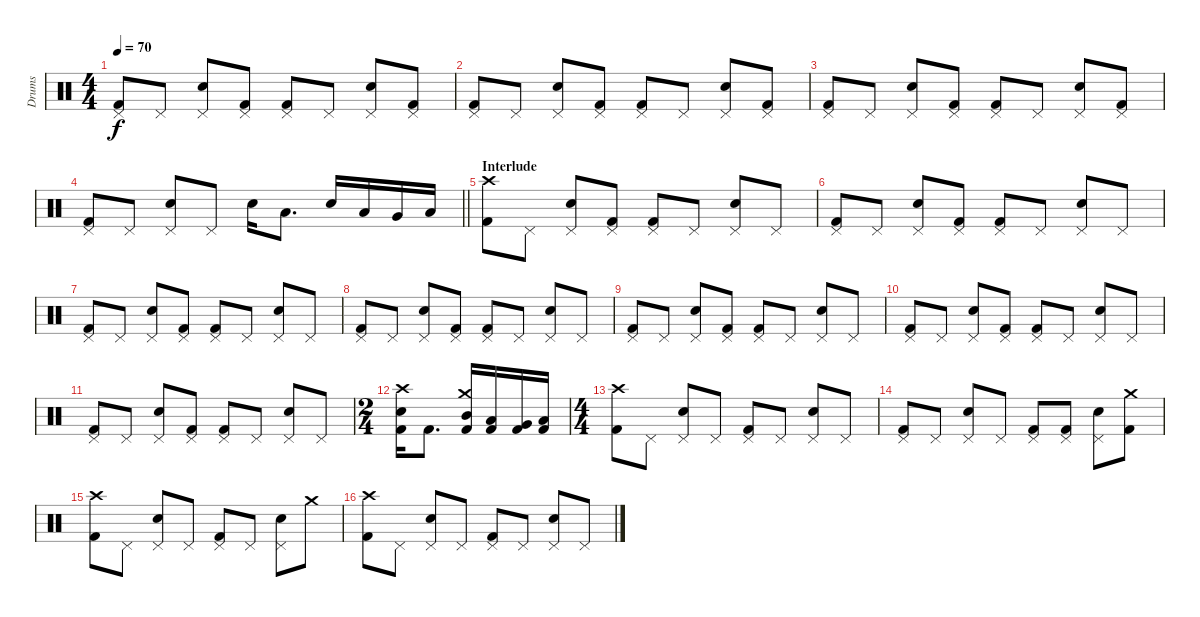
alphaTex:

\track ("Drums" "Drums") {instrument percussion}
\staff {score}
\articulation defaults
\ts (4 4)
\tempo 70
\clef neutral
\ks c
("Pedal Hi-Hat (hit)" "Kick (hit) 2").8{dy f} "Pedal Hi-Hat (hit)".8 ("Pedal Hi-Hat (hit)" "Snare (hit) 2").8 ("Pedal Hi-Hat (hit)" "Kick (hit) 2").8 ("Pedal Hi-Hat (hit)" "Kick (hit) 2").8 "Pedal Hi-Hat (hit)".8 ("Pedal Hi-Hat (hit)" "Snare (hit) 2").8 ("Pedal Hi-Hat (hit)" "Kick (hit) 2").8 |
("Pedal Hi-Hat (hit)" "Kick (hit) 2").8 "Pedal Hi-Hat (hit)".8 ("Pedal Hi-Hat (hit)" "Snare (hit) 2").8 ("Pedal Hi-Hat (hit)" "Kick (hit) 2").8 ("Pedal Hi-Hat (hit)" "Kick (hit) 2").8 "Pedal Hi-Hat (hit)".8 ("Pedal Hi-Hat (hit)" "Snare (hit) 2").8 ("Pedal Hi-Hat (hit)" "Kick (hit) 2").8 |
("Pedal Hi-Hat (hit)" "Kick (hit) 2").8 "Pedal Hi-Hat (hit)".8 ("Pedal Hi-Hat (hit)" "Snare (hit) 2").8 ("Pedal Hi-Hat (hit)" "Kick (hit) 2").8 ("Pedal Hi-Hat (hit)" "Kick (hit) 2").8 "Pedal Hi-Hat (hit)".8 ("Pedal Hi-Hat (hit)" "Snare (hit) 2").8 ("Pedal Hi-Hat (hit)" "Kick (hit) 2").8 |
\barLineRight lightlight
("Pedal Hi-Hat (hit)" "Kick (hit) 2").8 "Pedal Hi-Hat (hit)".8 ("Pedal Hi-Hat (hit)" "Snare (hit) 2").8 "Pedal Hi-Hat (hit)".8 "Snare (hit) 2".16 "Low Tom (hit)".8{d} "Snare (hit) 2".16 "Low Tom (hit)".16 "Very Low Tom (hit)".16 "Low Floor Tom (hit)".16 |
\section ("" "Interlude")
("Crash high (hit)" "Kick (hit) 2").8 "Pedal Hi-Hat (hit)".8 ("Pedal Hi-Hat (hit)" "Snare (hit) 2").8 ("Pedal Hi-Hat (hit)" "Kick (hit) 2").8 ("Pedal Hi-Hat (hit)" "Kick (hit) 2").8 "Pedal Hi-Hat (hit)".8 ("Pedal Hi-Hat (hit)" "Snare (hit) 2").8 "Pedal Hi-Hat (hit)".8 |
("Pedal Hi-Hat (hit)" "Kick (hit) 2").8 "Pedal Hi-Hat (hit)".8 ("Pedal Hi-Hat (hit)" "Snare (hit) 2").8 ("Pedal Hi-Hat (hit)" "Kick (hit) 2").8 ("Pedal Hi-Hat (hit)" "Kick (hit) 2").8 "Pedal Hi-Hat (hit)".8 ("Pedal Hi-Hat (hit)" "Snare (hit) 2").8 "Pedal Hi-Hat (hit)".8 |
("Pedal Hi-Hat (hit)" "Kick (hit) 2").8 "Pedal Hi-Hat (hit)".8 ("Pedal Hi-Hat (hit)" "Snare (hit) 2").8 ("Pedal Hi-Hat (hit)" "Kick (hit) 2").8 ("Pedal Hi-Hat (hit)" "Kick (hit) 2").8 "Pedal Hi-Hat (hit)".8 ("Pedal Hi-Hat (hit)" "Snare (hit) 2").8 "Pedal Hi-Hat (hit)".8 |
("Pedal Hi-Hat (hit)" "Kick (hit) 2").8 "Pedal Hi-Hat (hit)".8 ("Pedal Hi-Hat (hit)" "Snare (hit) 2").8 ("Pedal Hi-Hat (hit)" "Kick (hit) 2").8 ("Pedal Hi-Hat (hit)" "Kick (hit) 2").8 "Pedal Hi-Hat (hit)".8 ("Pedal Hi-Hat (hit)" "Snare (hit) 2").8 "Pedal Hi-Hat (hit)".8 |
("Pedal Hi-Hat (hit)" "Kick (hit) 2").8 "Pedal Hi-Hat (hit)".8 ("Pedal Hi-Hat (hit)" "Snare (hit) 2").8 ("Pedal Hi-Hat (hit)" "Kick (hit) 2").8 ("Pedal Hi-Hat (hit)" "Kick (hit) 2").8 "Pedal Hi-Hat (hit)".8 ("Pedal Hi-Hat (hit)" "Snare (hit) 2").8 "Pedal Hi-Hat (hit)".8 |
("Pedal Hi-Hat (hit)" "Kick (hit) 2").8 "Pedal Hi-Hat (hit)".8 ("Pedal Hi-Hat (hit)" "Snare (hit) 2").8 ("Pedal Hi-Hat (hit)" "Kick (hit) 2").8 ("Pedal Hi-Hat (hit)" "Kick (hit) 2").8 "Pedal Hi-Hat (hit)".8 ("Pedal Hi-Hat (hit)" "Snare (hit) 2").8 "Pedal Hi-Hat (hit)".8 |
("Pedal Hi-Hat (hit)" "Kick (hit) 2").8 "Pedal Hi-Hat (hit)".8 ("Pedal Hi-Hat (hit)" "Snare (hit) 2").8 ("Pedal Hi-Hat (hit)" "Kick (hit) 2").8 ("Pedal Hi-Hat (hit)" "Kick (hit) 2").8 "Pedal Hi-Hat (hit)".8 ("Pedal Hi-Hat (hit)" "Snare (hit) 2").8 "Pedal Hi-Hat (hit)".8 |
\ts (2 4)
("Crash high (hit)" "Snare (hit) 2" "Kick (hit) 2").16 "Kick (hit) 2".8{d} ("Crash medium (hit)" "Mid Tom (hit)" "Kick (hit) 2").16 ("Low Tom (hit)" "Kick (hit) 2").16 ("Very Low Tom (hit)" "Kick (hit) 2").16 ("Low Floor Tom (hit)" "Kick (hit) 2").16 |
\ts (4 4)
("Crash high (hit)" "Kick (hit) 2").8 "Pedal Hi-Hat (hit)".8 ("Pedal Hi-Hat (hit)" "Snare (hit) 2").8 "Pedal Hi-Hat (hit)".8 ("Pedal Hi-Hat (hit)" "Kick (hit) 2").8 "Pedal Hi-Hat (hit)".8 ("Pedal Hi-Hat (hit)" "Snare (hit) 2").8 "Pedal Hi-Hat (hit)".8 |
("Pedal Hi-Hat (hit)" "Kick (hit) 2").8 "Pedal Hi-Hat (hit)".8 ("Pedal Hi-Hat (hit)" "Snare (hit) 2").8 "Pedal Hi-Hat (hit)".8 ("Pedal Hi-Hat (hit)" "Kick (hit) 2").8 ("Pedal Hi-Hat (hit)" "Kick (hit) 2").8 ("Pedal Hi-Hat (hit)" "Snare (hit) 2").8 ("Crash medium (hit)" "Kick (hit) 2").8 |
("Crash high (hit)" "Kick (hit) 2").8 "Pedal Hi-Hat (hit)".8 ("Pedal Hi-Hat (hit)" "Snare (hit) 2").8 "Pedal Hi-Hat (hit)".8 ("Pedal Hi-Hat (hit)" "Kick (hit) 2").8 "Pedal Hi-Hat (hit)".8 ("Pedal Hi-Hat (hit)" "Snare (hit) 2").8 "Crash medium (hit)".8 |
("Crash high (hit)" "Kick (hit) 2").8 "Pedal Hi-Hat (hit)".8 ("Pedal Hi-Hat (hit)" "Snare (hit) 2").8 "Pedal Hi-Hat (hit)".8 ("Pedal Hi-Hat (hit)" "Kick (hit) 2").8 "Pedal Hi-Hat (hit)".8 ("Pedal Hi-Hat (hit)" "Snare (hit) 2").8 "Pedal Hi-Hat (hit)".8
